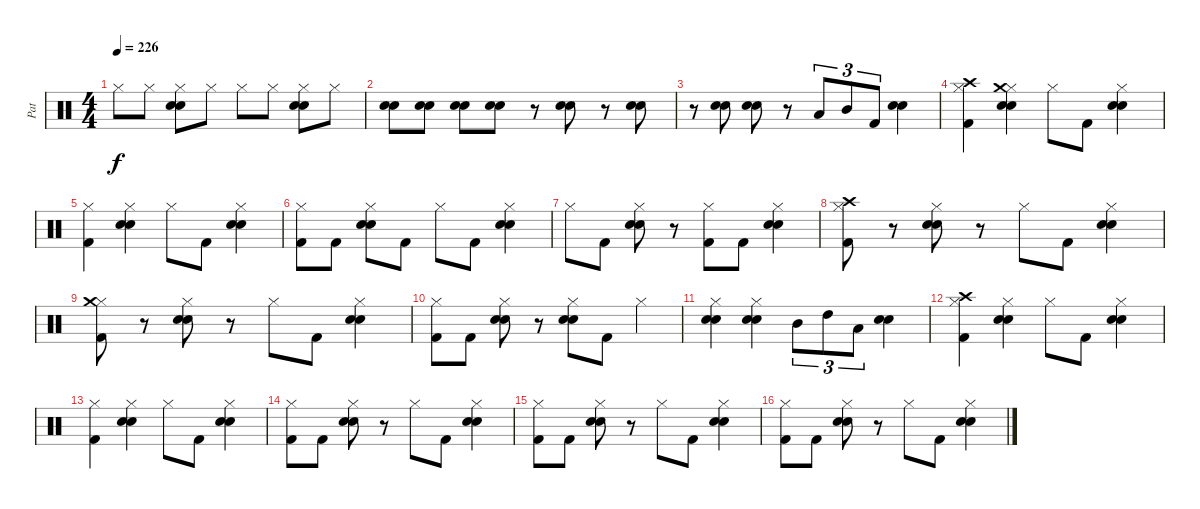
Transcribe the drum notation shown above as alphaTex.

\track ("Pat" "Pat") {instrument percussion}
\staff {score}
\articulation defaults
\ts (4 4)
\tempo 226
\clef neutral
\ks c "Hi-Hat (closed)".8{dy f} "Hi-Hat (closed)".8
("Hi-Hat (closed)" "Snare (hit) 2" "Electric Snare (hit)").8 "Hi-Hat (closed)".8 "Hi-Hat (closed)".8 "Hi-Hat (closed)".8 ("Hi-Hat (closed)" "Snare (hit) 2" "Electric Snare (hit)").8 "Hi-Hat (closed)".8 |
("Snare (hit) 2" "Electric Snare (hit)").8 ("Snare (hit) 2" "Electric Snare (hit)").8 ("Snare (hit) 2" "Electric Snare (hit)").8 ("Snare (hit) 2" "Electric Snare (hit)").8 r.8 ("Snare (hit) 2" "Electric Snare (hit)").8 r.8 ("Snare (hit) 2" "Electric Snare (hit)").8 |
r.8 ("Snare (hit) 2" "Electric Snare (hit)").8 ("Snare (hit) 2" "Electric Snare (hit)").8 r.8 "Low Tom (hit)".8{tu (3 2)} "Mid Tom (hit)".8{tu (3 2)} "Kick (hit) 2".8{tu (3 2)} ("Snare (hit) 2" "Electric Snare (hit)").4 |
("Hi-Hat (closed)" "Crash high (hit)" "Kick (hit) 2").4 ("Hi-Hat (closed)" "Crash medium (hit)" "Snare (hit) 2" "Electric Snare (hit)").4 "Hi-Hat (closed)".8 "Kick (hit) 2".8 ("Hi-Hat (closed)" "Snare (hit) 2" "Electric Snare (hit)").4 |
("Hi-Hat (closed)" "Kick (hit) 2").4 ("Hi-Hat (closed)" "Snare (hit) 2" "Electric Snare (hit)").4 "Hi-Hat (closed)".8 "Kick (hit) 2".8 ("Hi-Hat (closed)" "Snare (hit) 2" "Electric Snare (hit)").4 |
("Hi-Hat (closed)" "Kick (hit) 2").8 "Kick (hit) 2".8 ("Hi-Hat (closed)" "Snare (hit) 2" "Electric Snare (hit)").8 "Kick (hit) 2".8 "Hi-Hat (closed)".8 "Kick (hit) 2".8 ("Hi-Hat (closed)" "Snare (hit) 2" "Electric Snare (hit)").4 |
"Hi-Hat (closed)".8 "Kick (hit) 2".8 ("Hi-Hat (closed)" "Snare (hit) 2" "Electric Snare (hit)").8 r.8 ("Hi-Hat (closed)" "Kick (hit) 2").8 "Kick (hit) 2".8 ("Hi-Hat (closed)" "Snare (hit) 2" "Electric Snare (hit)").4 |
("Hi-Hat (closed)" "Crash high (hit)" "Kick (hit) 2").8 r.8 ("Hi-Hat (closed)" "Snare (hit) 2" "Electric Snare (hit)").8 r.8 "Hi-Hat (closed)".8 "Kick (hit) 2".8 ("Hi-Hat (closed)" "Snare (hit) 2" "Electric Snare (hit)").4 |
("Hi-Hat (closed)" "Crash medium (hit)" "Kick (hit) 2").8 r.8 ("Hi-Hat (closed)" "Snare (hit) 2" "Electric Snare (hit)").8 r.8 "Hi-Hat (closed)".8 "Kick (hit) 2".8 ("Hi-Hat (closed)" "Snare (hit) 2" "Electric Snare (hit)").4 |
("Hi-Hat (closed)" "Kick (hit) 2").8 "Kick (hit) 2".8 ("Hi-Hat (closed)" "Snare (hit) 2" "Electric Snare (hit)").8 r.8 ("Hi-Hat (closed)" "Snare (hit) 2" "Electric Snare (hit)").8 "Kick (hit) 2".8 "Hi-Hat (closed)".4 |
("Hi-Hat (closed)" "Snare (hit) 2" "Electric Snare (hit)").4 ("Hi-Hat (closed)" "Snare (hit) 2" "Electric Snare (hit)").4 "Mid Tom (hit)".8{tu (3 2)} "High Tom (hit)".8{tu (3 2)} "Low Tom (hit)".8{tu (3 2)} ("Snare (hit) 2" "Electric Snare (hit)").4 |
("Hi-Hat (closed)" "Crash high (hit)" "Kick (hit) 2").4 ("Hi-Hat (closed)" "Snare (hit) 2" "Electric Snare (hit)").4 "Hi-Hat (closed)".8 "Kick (hit) 2".8 ("Hi-Hat (closed)" "Snare (hit) 2" "Electric Snare (hit)").4 |
("Hi-Hat (closed)" "Kick (hit) 2").4 ("Hi-Hat (closed)" "Snare (hit) 2" "Electric Snare (hit)").4 "Hi-Hat (closed)".8 "Kick (hit) 2".8 ("Hi-Hat (closed)" "Snare (hit) 2" "Electric Snare (hit)").4 |
("Hi-Hat (closed)" "Kick (hit) 2").8 "Kick (hit) 2".8 ("Hi-Hat (closed)" "Snare (hit) 2" "Electric Snare (hit)").8 r.8 "Hi-Hat (closed)".8 "Kick (hit) 2".8 ("Hi-Hat (closed)" "Snare (hit) 2" "Electric Snare (hit)").4 |
("Hi-Hat (closed)" "Kick (hit) 2").8 "Kick (hit) 2".8 ("Hi-Hat (closed)" "Snare (hit) 2" "Electric Snare (hit)").8 r.8 "Hi-Hat (closed)".8 "Kick (hit) 2".8 ("Hi-Hat (closed)" "Snare (hit) 2" "Electric Snare (hit)").4 |
("Hi-Hat (closed)" "Kick (hit) 2").8 "Kick (hit) 2".8 ("Hi-Hat (closed)" "Snare (hit) 2" "Electric Snare (hit)").8 r.8 "Hi-Hat (closed)".8 "Kick (hit) 2".8 ("Hi-Hat (closed)" "Snare (hit) 2" "Electric Snare (hit)").4
